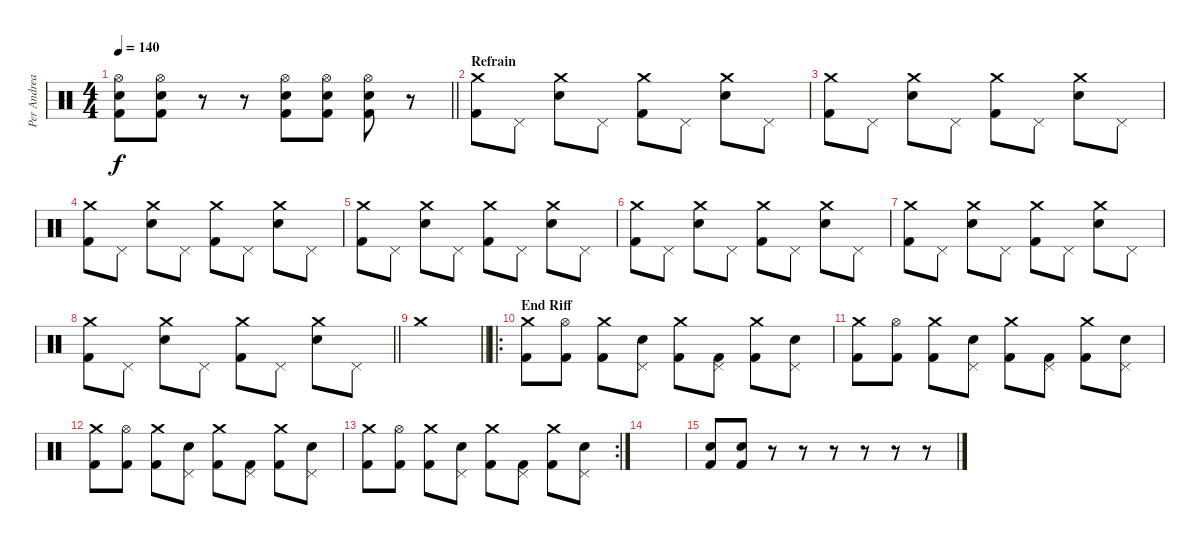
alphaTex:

\track ("Per Andreasson" "Per Andrea") {instrument percussion}
\staff {score}
\articulation defaults
\ts (4 4)
\tempo 140
\clef neutral
\barLineRight lightlight
\ks c
("Hi-Hat (open)" "Snare (hit) 2" "Kick (hit) 2").8{dy f} ("Hi-Hat (open)" "Snare (hit) 2" "Kick (hit) 2").8 r.8 r.8 ("Hi-Hat (open)" "Snare (hit) 2" "Kick (hit) 2").8 ("Hi-Hat (open)" "Snare (hit) 2" "Kick (hit) 2").8 ("Hi-Hat (open)" "Snare (hit) 2" "Kick (hit) 2").8 r.8 |
\section ("" "Refrain")
("Crash medium (hit)" "Kick (hit) 2").8 "Pedal Hi-Hat (hit)".8 ("Crash medium (hit)" "Snare (hit) 2").8 "Pedal Hi-Hat (hit)".8 ("Crash medium (hit)" "Kick (hit) 2").8 "Pedal Hi-Hat (hit)".8 ("Crash medium (hit)" "Snare (hit) 2").8 "Pedal Hi-Hat (hit)".8 |
("Crash medium (hit)" "Kick (hit) 2").8 "Pedal Hi-Hat (hit)".8 ("Crash medium (hit)" "Snare (hit) 2").8 "Pedal Hi-Hat (hit)".8 ("Crash medium (hit)" "Kick (hit) 2").8 "Pedal Hi-Hat (hit)".8 ("Crash medium (hit)" "Snare (hit) 2").8 "Pedal Hi-Hat (hit)".8 |
("Crash medium (hit)" "Kick (hit) 2").8 "Pedal Hi-Hat (hit)".8 ("Crash medium (hit)" "Snare (hit) 2").8 "Pedal Hi-Hat (hit)".8 ("Crash medium (hit)" "Kick (hit) 2").8 "Pedal Hi-Hat (hit)".8 ("Crash medium (hit)" "Snare (hit) 2").8 "Pedal Hi-Hat (hit)".8 |
("Crash medium (hit)" "Kick (hit) 2").8 "Pedal Hi-Hat (hit)".8 ("Crash medium (hit)" "Snare (hit) 2").8 "Pedal Hi-Hat (hit)".8 ("Crash medium (hit)" "Kick (hit) 2").8 "Pedal Hi-Hat (hit)".8 ("Crash medium (hit)" "Snare (hit) 2").8 "Pedal Hi-Hat (hit)".8 |
("Crash medium (hit)" "Kick (hit) 2").8 "Pedal Hi-Hat (hit)".8 ("Crash medium (hit)" "Snare (hit) 2").8 "Pedal Hi-Hat (hit)".8 ("Crash medium (hit)" "Kick (hit) 2").8 "Pedal Hi-Hat (hit)".8 ("Crash medium (hit)" "Snare (hit) 2").8 "Pedal Hi-Hat (hit)".8 |
("Crash medium (hit)" "Kick (hit) 2").8 "Pedal Hi-Hat (hit)".8 ("Crash medium (hit)" "Snare (hit) 2").8 "Pedal Hi-Hat (hit)".8 ("Crash medium (hit)" "Kick (hit) 2").8 "Pedal Hi-Hat (hit)".8 ("Crash medium (hit)" "Snare (hit) 2").8 "Pedal Hi-Hat (hit)".8 |
\barLineRight lightlight
("Crash medium (hit)" "Kick (hit) 2").8 "Pedal Hi-Hat (hit)".8 ("Crash medium (hit)" "Snare (hit) 2").8 "Pedal Hi-Hat (hit)".8 ("Crash medium (hit)" "Kick (hit) 2").8 "Pedal Hi-Hat (hit)".8 ("Crash medium (hit)" "Snare (hit) 2").8 "Pedal Hi-Hat (hit)".8 |
\barLineRight lightlight "Crash medium (hit)".1
|
\ro
\section ("" "End Riff")
("Crash medium (hit)" "Kick (hit) 2").8 ("Hi-Hat (open)" "Kick (hit) 2").8 ("Crash medium (hit)" "Kick (hit) 2").8 ("Pedal Hi-Hat (hit)" "Snare (hit) 2").8 ("Crash medium (hit)" "Kick (hit) 2").8 ("Pedal Hi-Hat (hit)" "Kick (hit) 2").8 ("Crash medium (hit)" "Kick (hit) 2").8 ("Pedal Hi-Hat (hit)" "Snare (hit) 2").8 |
("Crash medium (hit)" "Kick (hit) 2").8 ("Hi-Hat (open)" "Kick (hit) 2").8 ("Crash medium (hit)" "Kick (hit) 2").8 ("Pedal Hi-Hat (hit)" "Snare (hit) 2").8 ("Crash medium (hit)" "Kick (hit) 2").8 ("Pedal Hi-Hat (hit)" "Kick (hit) 2").8 ("Crash medium (hit)" "Kick (hit) 2").8 ("Pedal Hi-Hat (hit)" "Snare (hit) 2").8 |
("Crash medium (hit)" "Kick (hit) 2").8 ("Hi-Hat (open)" "Kick (hit) 2").8 ("Crash medium (hit)" "Kick (hit) 2").8 ("Pedal Hi-Hat (hit)" "Snare (hit) 2").8 ("Crash medium (hit)" "Kick (hit) 2").8 ("Pedal Hi-Hat (hit)" "Kick (hit) 2").8 ("Crash medium (hit)" "Kick (hit) 2").8 ("Pedal Hi-Hat (hit)" "Snare (hit) 2").8 |
\rc 2
("Crash medium (hit)" "Kick (hit) 2").8 ("Hi-Hat (open)" "Kick (hit) 2").8 ("Crash medium (hit)" "Kick (hit) 2").8 ("Pedal Hi-Hat (hit)" "Snare (hit) 2").8 ("Crash medium (hit)" "Kick (hit) 2").8 ("Pedal Hi-Hat (hit)" "Kick (hit) 2").8 ("Crash medium (hit)" "Kick (hit) 2").8 ("Pedal Hi-Hat (hit)" "Snare (hit) 2").8 |
|
("Snare (hit) 2" "Kick (hit) 2").8 ("Snare (hit) 2" "Kick (hit) 2").8 r.8 r.8 r.8 r.8 r.8 r.8
